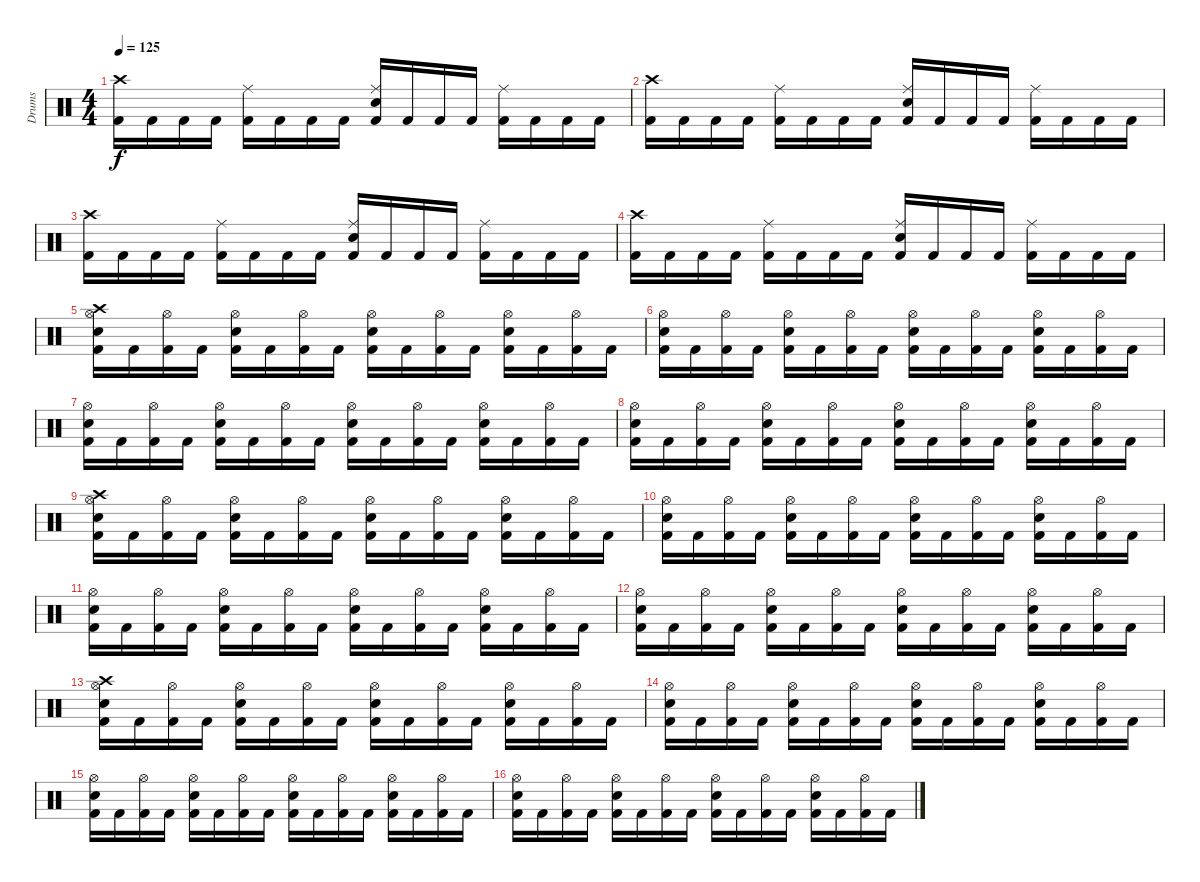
\track ("Drums" "Drums") {instrument percussion}
\staff {score}
\articulation defaults
\ts (4 4)
\tempo 125
\clef neutral
\ks c
("Crash high (hit)" "Kick (hit) 2").16{dy f} "Kick (hit) 2".16 "Kick (hit) 2".16 "Kick (hit) 2".16 ("Ride (middle)" "Kick (hit) 2").16 "Kick (hit) 2".16 "Kick (hit) 2".16 "Kick (hit) 2".16 ("Ride (middle)" "Snare (hit) 2" "Kick (hit) 2").16 "Kick (hit) 2".16 "Kick (hit) 2".16 "Kick (hit) 2".16 ("Ride (middle)" "Kick (hit) 2").16 "Kick (hit) 2".16 "Kick (hit) 2".16 "Kick (hit) 2".16 |
("Crash high (hit)" "Kick (hit) 2").16 "Kick (hit) 2".16 "Kick (hit) 2".16 "Kick (hit) 2".16 ("Ride (middle)" "Kick (hit) 2").16 "Kick (hit) 2".16 "Kick (hit) 2".16 "Kick (hit) 2".16 ("Ride (middle)" "Snare (hit) 2" "Kick (hit) 2").16 "Kick (hit) 2".16 "Kick (hit) 2".16 "Kick (hit) 2".16 ("Ride (middle)" "Kick (hit) 2").16 "Kick (hit) 2".16 "Kick (hit) 2".16 "Kick (hit) 2".16 |
("Crash high (hit)" "Kick (hit) 2").16 "Kick (hit) 2".16 "Kick (hit) 2".16 "Kick (hit) 2".16 ("Ride (middle)" "Kick (hit) 2").16 "Kick (hit) 2".16 "Kick (hit) 2".16 "Kick (hit) 2".16 ("Ride (middle)" "Snare (hit) 2" "Kick (hit) 2").16 "Kick (hit) 2".16 "Kick (hit) 2".16 "Kick (hit) 2".16 ("Ride (middle)" "Kick (hit) 2").16 "Kick (hit) 2".16 "Kick (hit) 2".16 "Kick (hit) 2".16 |
("Crash high (hit)" "Kick (hit) 2").16 "Kick (hit) 2".16 "Kick (hit) 2".16 "Kick (hit) 2".16 ("Ride (middle)" "Kick (hit) 2").16 "Kick (hit) 2".16 "Kick (hit) 2".16 "Kick (hit) 2".16 ("Ride (middle)" "Snare (hit) 2" "Kick (hit) 2").16 "Kick (hit) 2".16 "Kick (hit) 2".16 "Kick (hit) 2".16 ("Ride (middle)" "Kick (hit) 2").16 "Kick (hit) 2".16 "Kick (hit) 2".16 "Kick (hit) 2".16 |
("Crash high (hit)" "Hi-Hat (open)" "Snare (hit) 2" "Kick (hit) 2").16 "Kick (hit) 2".16 ("Hi-Hat (open)" "Kick (hit) 2").16 "Kick (hit) 2".16 ("Hi-Hat (open)" "Snare (hit) 2" "Kick (hit) 2").16 "Kick (hit) 2".16 ("Hi-Hat (open)" "Kick (hit) 2").16 "Kick (hit) 2".16 ("Hi-Hat (open)" "Snare (hit) 2" "Kick (hit) 2").16 "Kick (hit) 2".16 ("Hi-Hat (open)" "Kick (hit) 2").16 "Kick (hit) 2".16 ("Hi-Hat (open)" "Snare (hit) 2" "Kick (hit) 2").16 "Kick (hit) 2".16 ("Hi-Hat (open)" "Kick (hit) 2").16 "Kick (hit) 2".16 |
("Hi-Hat (open)" "Snare (hit) 2" "Kick (hit) 2").16 "Kick (hit) 2".16 ("Hi-Hat (open)" "Kick (hit) 2").16 "Kick (hit) 2".16 ("Hi-Hat (open)" "Snare (hit) 2" "Kick (hit) 2").16 "Kick (hit) 2".16 ("Hi-Hat (open)" "Kick (hit) 2").16 "Kick (hit) 2".16 ("Hi-Hat (open)" "Snare (hit) 2" "Kick (hit) 2").16 "Kick (hit) 2".16 ("Hi-Hat (open)" "Kick (hit) 2").16 "Kick (hit) 2".16 ("Hi-Hat (open)" "Snare (hit) 2" "Kick (hit) 2").16 "Kick (hit) 2".16 ("Hi-Hat (open)" "Kick (hit) 2").16 "Kick (hit) 2".16 |
("Hi-Hat (open)" "Snare (hit) 2" "Kick (hit) 2").16 "Kick (hit) 2".16 ("Hi-Hat (open)" "Kick (hit) 2").16 "Kick (hit) 2".16 ("Hi-Hat (open)" "Snare (hit) 2" "Kick (hit) 2").16 "Kick (hit) 2".16 ("Hi-Hat (open)" "Kick (hit) 2").16 "Kick (hit) 2".16 ("Hi-Hat (open)" "Snare (hit) 2" "Kick (hit) 2").16 "Kick (hit) 2".16 ("Hi-Hat (open)" "Kick (hit) 2").16 "Kick (hit) 2".16 ("Hi-Hat (open)" "Snare (hit) 2" "Kick (hit) 2").16 "Kick (hit) 2".16 ("Hi-Hat (open)" "Kick (hit) 2").16 "Kick (hit) 2".16 |
("Hi-Hat (open)" "Snare (hit) 2" "Kick (hit) 2").16 "Kick (hit) 2".16 ("Hi-Hat (open)" "Kick (hit) 2").16 "Kick (hit) 2".16 ("Hi-Hat (open)" "Snare (hit) 2" "Kick (hit) 2").16 "Kick (hit) 2".16 ("Hi-Hat (open)" "Kick (hit) 2").16 "Kick (hit) 2".16 ("Hi-Hat (open)" "Snare (hit) 2" "Kick (hit) 2").16 "Kick (hit) 2".16 ("Hi-Hat (open)" "Kick (hit) 2").16 "Kick (hit) 2".16 ("Hi-Hat (open)" "Snare (hit) 2" "Kick (hit) 2").16 "Kick (hit) 2".16 ("Hi-Hat (open)" "Kick (hit) 2").16 "Kick (hit) 2".16 |
("Crash high (hit)" "Hi-Hat (open)" "Snare (hit) 2" "Kick (hit) 2").16 "Kick (hit) 2".16 ("Hi-Hat (open)" "Kick (hit) 2").16 "Kick (hit) 2".16 ("Hi-Hat (open)" "Snare (hit) 2" "Kick (hit) 2").16 "Kick (hit) 2".16 ("Hi-Hat (open)" "Kick (hit) 2").16 "Kick (hit) 2".16 ("Hi-Hat (open)" "Snare (hit) 2" "Kick (hit) 2").16 "Kick (hit) 2".16 ("Hi-Hat (open)" "Kick (hit) 2").16 "Kick (hit) 2".16 ("Hi-Hat (open)" "Snare (hit) 2" "Kick (hit) 2").16 "Kick (hit) 2".16 ("Hi-Hat (open)" "Kick (hit) 2").16 "Kick (hit) 2".16 |
("Hi-Hat (open)" "Snare (hit) 2" "Kick (hit) 2").16 "Kick (hit) 2".16 ("Hi-Hat (open)" "Kick (hit) 2").16 "Kick (hit) 2".16 ("Hi-Hat (open)" "Snare (hit) 2" "Kick (hit) 2").16 "Kick (hit) 2".16 ("Hi-Hat (open)" "Kick (hit) 2").16 "Kick (hit) 2".16 ("Hi-Hat (open)" "Snare (hit) 2" "Kick (hit) 2").16 "Kick (hit) 2".16 ("Hi-Hat (open)" "Kick (hit) 2").16 "Kick (hit) 2".16 ("Hi-Hat (open)" "Snare (hit) 2" "Kick (hit) 2").16 "Kick (hit) 2".16 ("Hi-Hat (open)" "Kick (hit) 2").16 "Kick (hit) 2".16 |
("Hi-Hat (open)" "Snare (hit) 2" "Kick (hit) 2").16 "Kick (hit) 2".16 ("Hi-Hat (open)" "Kick (hit) 2").16 "Kick (hit) 2".16 ("Hi-Hat (open)" "Snare (hit) 2" "Kick (hit) 2").16 "Kick (hit) 2".16 ("Hi-Hat (open)" "Kick (hit) 2").16 "Kick (hit) 2".16 ("Hi-Hat (open)" "Snare (hit) 2" "Kick (hit) 2").16 "Kick (hit) 2".16 ("Hi-Hat (open)" "Kick (hit) 2").16 "Kick (hit) 2".16 ("Hi-Hat (open)" "Snare (hit) 2" "Kick (hit) 2").16 "Kick (hit) 2".16 ("Hi-Hat (open)" "Kick (hit) 2").16 "Kick (hit) 2".16 |
("Hi-Hat (open)" "Snare (hit) 2" "Kick (hit) 2").16 "Kick (hit) 2".16 ("Hi-Hat (open)" "Kick (hit) 2").16 "Kick (hit) 2".16 ("Hi-Hat (open)" "Snare (hit) 2" "Kick (hit) 2").16 "Kick (hit) 2".16 ("Hi-Hat (open)" "Kick (hit) 2").16 "Kick (hit) 2".16 ("Hi-Hat (open)" "Snare (hit) 2" "Kick (hit) 2").16 "Kick (hit) 2".16 ("Hi-Hat (open)" "Kick (hit) 2").16 "Kick (hit) 2".16 ("Hi-Hat (open)" "Snare (hit) 2" "Kick (hit) 2").16 "Kick (hit) 2".16 ("Hi-Hat (open)" "Kick (hit) 2").16 "Kick (hit) 2".16 |
("Crash high (hit)" "Hi-Hat (open)" "Snare (hit) 2" "Kick (hit) 2").16 "Kick (hit) 2".16 ("Hi-Hat (open)" "Kick (hit) 2").16 "Kick (hit) 2".16 ("Hi-Hat (open)" "Snare (hit) 2" "Kick (hit) 2").16 "Kick (hit) 2".16 ("Hi-Hat (open)" "Kick (hit) 2").16 "Kick (hit) 2".16 ("Hi-Hat (open)" "Snare (hit) 2" "Kick (hit) 2").16 "Kick (hit) 2".16 ("Hi-Hat (open)" "Kick (hit) 2").16 "Kick (hit) 2".16 ("Hi-Hat (open)" "Snare (hit) 2" "Kick (hit) 2").16 "Kick (hit) 2".16 ("Hi-Hat (open)" "Kick (hit) 2").16 "Kick (hit) 2".16 |
("Hi-Hat (open)" "Snare (hit) 2" "Kick (hit) 2").16 "Kick (hit) 2".16 ("Hi-Hat (open)" "Kick (hit) 2").16 "Kick (hit) 2".16 ("Hi-Hat (open)" "Snare (hit) 2" "Kick (hit) 2").16 "Kick (hit) 2".16 ("Hi-Hat (open)" "Kick (hit) 2").16 "Kick (hit) 2".16 ("Hi-Hat (open)" "Snare (hit) 2" "Kick (hit) 2").16 "Kick (hit) 2".16 ("Hi-Hat (open)" "Kick (hit) 2").16 "Kick (hit) 2".16 ("Hi-Hat (open)" "Snare (hit) 2" "Kick (hit) 2").16 "Kick (hit) 2".16 ("Hi-Hat (open)" "Kick (hit) 2").16 "Kick (hit) 2".16 |
("Hi-Hat (open)" "Snare (hit) 2" "Kick (hit) 2").16 "Kick (hit) 2".16 ("Hi-Hat (open)" "Kick (hit) 2").16 "Kick (hit) 2".16 ("Hi-Hat (open)" "Snare (hit) 2" "Kick (hit) 2").16 "Kick (hit) 2".16 ("Hi-Hat (open)" "Kick (hit) 2").16 "Kick (hit) 2".16 ("Hi-Hat (open)" "Snare (hit) 2" "Kick (hit) 2").16 "Kick (hit) 2".16 ("Hi-Hat (open)" "Kick (hit) 2").16 "Kick (hit) 2".16 ("Hi-Hat (open)" "Snare (hit) 2" "Kick (hit) 2").16 "Kick (hit) 2".16 ("Hi-Hat (open)" "Kick (hit) 2").16 "Kick (hit) 2".16 |
("Hi-Hat (open)" "Snare (hit) 2" "Kick (hit) 2").16 "Kick (hit) 2".16 ("Hi-Hat (open)" "Kick (hit) 2").16 "Kick (hit) 2".16 ("Hi-Hat (open)" "Snare (hit) 2" "Kick (hit) 2").16 "Kick (hit) 2".16 ("Hi-Hat (open)" "Kick (hit) 2").16 "Kick (hit) 2".16 ("Hi-Hat (open)" "Snare (hit) 2" "Kick (hit) 2").16 "Kick (hit) 2".16 ("Hi-Hat (open)" "Kick (hit) 2").16 "Kick (hit) 2".16 ("Hi-Hat (open)" "Snare (hit) 2" "Kick (hit) 2").16 "Kick (hit) 2".16 ("Hi-Hat (open)" "Kick (hit) 2").16 "Kick (hit) 2".16
